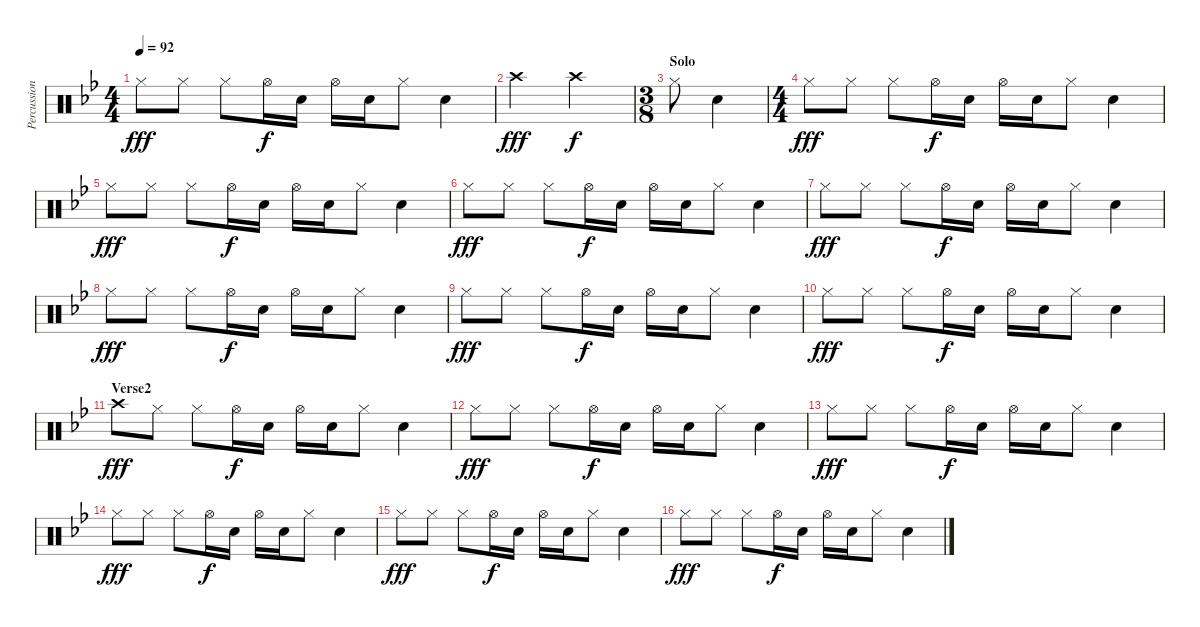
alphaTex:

\track ("Percussion" "Percussion") {instrument percussion}
\staff {score}
\articulation defaults
\ts (4 4)
\tempo 92
\clef neutral
\ks bb "Hi-Hat (closed)".8{dy fff} "Hi-Hat (closed)".8 "Hi-Hat (closed)".8 "Hi-Hat (open)".16{dy f} "Snare (hit) 2".16 "Hi-Hat (open)".16 "Snare (hit) 2".16 "Hi-Hat (closed)".8 "Snare (hit) 2".4
|
"Crash high (hit)".2{dy fff} "Crash high (hit)".2{dy f} |
\ts (3 8)
\section ("" "Solo")
"Hi-Hat (closed)".8 "Snare (hit) 2".4 |
\ts (4 4)
"Hi-Hat (closed)".8{dy fff} "Hi-Hat (closed)".8 "Hi-Hat (closed)".8 "Hi-Hat (open)".16{dy f} "Snare (hit) 2".16 "Hi-Hat (open)".16 "Snare (hit) 2".16 "Hi-Hat (closed)".8 "Snare (hit) 2".4 |
"Hi-Hat (closed)".8{dy fff} "Hi-Hat (closed)".8 "Hi-Hat (closed)".8 "Hi-Hat (open)".16{dy f} "Snare (hit) 2".16 "Hi-Hat (open)".16 "Snare (hit) 2".16 "Hi-Hat (closed)".8 "Snare (hit) 2".4 |
"Hi-Hat (closed)".8{dy fff} "Hi-Hat (closed)".8 "Hi-Hat (closed)".8 "Hi-Hat (open)".16{dy f} "Snare (hit) 2".16 "Hi-Hat (open)".16 "Snare (hit) 2".16 "Hi-Hat (closed)".8 "Snare (hit) 2".4 |
"Hi-Hat (closed)".8{dy fff} "Hi-Hat (closed)".8 "Hi-Hat (closed)".8 "Hi-Hat (open)".16{dy f} "Snare (hit) 2".16 "Hi-Hat (open)".16 "Snare (hit) 2".16 "Hi-Hat (closed)".8 "Snare (hit) 2".4 |
"Hi-Hat (closed)".8{dy fff} "Hi-Hat (closed)".8 "Hi-Hat (closed)".8 "Hi-Hat (open)".16{dy f} "Snare (hit) 2".16 "Hi-Hat (open)".16 "Snare (hit) 2".16 "Hi-Hat (closed)".8 "Snare (hit) 2".4 |
"Hi-Hat (closed)".8{dy fff} "Hi-Hat (closed)".8 "Hi-Hat (closed)".8 "Hi-Hat (open)".16{dy f} "Snare (hit) 2".16 "Hi-Hat (open)".16 "Snare (hit) 2".16 "Hi-Hat (closed)".8 "Snare (hit) 2".4 |
"Hi-Hat (closed)".8{dy fff} "Hi-Hat (closed)".8 "Hi-Hat (closed)".8 "Hi-Hat (open)".16{dy f} "Snare (hit) 2".16 "Hi-Hat (open)".16 "Snare (hit) 2".16 "Hi-Hat (closed)".8 "Snare (hit) 2".4 |
\section ("" "Verse2")
"Crash high (hit)".8{dy fff} "Hi-Hat (closed)".8 "Hi-Hat (closed)".8 "Hi-Hat (open)".16{dy f} "Snare (hit) 2".16 "Hi-Hat (open)".16 "Snare (hit) 2".16 "Hi-Hat (closed)".8 "Snare (hit) 2".4 |
"Hi-Hat (closed)".8{dy fff} "Hi-Hat (closed)".8 "Hi-Hat (closed)".8 "Hi-Hat (open)".16{dy f} "Snare (hit) 2".16 "Hi-Hat (open)".16 "Snare (hit) 2".16 "Hi-Hat (closed)".8 "Snare (hit) 2".4 |
"Hi-Hat (closed)".8{dy fff} "Hi-Hat (closed)".8 "Hi-Hat (closed)".8 "Hi-Hat (open)".16{dy f} "Snare (hit) 2".16 "Hi-Hat (open)".16 "Snare (hit) 2".16 "Hi-Hat (closed)".8 "Snare (hit) 2".4 |
"Hi-Hat (closed)".8{dy fff} "Hi-Hat (closed)".8 "Hi-Hat (closed)".8 "Hi-Hat (open)".16{dy f} "Snare (hit) 2".16 "Hi-Hat (open)".16 "Snare (hit) 2".16 "Hi-Hat (closed)".8 "Snare (hit) 2".4 |
"Hi-Hat (closed)".8{dy fff} "Hi-Hat (closed)".8 "Hi-Hat (closed)".8 "Hi-Hat (open)".16{dy f} "Snare (hit) 2".16 "Hi-Hat (open)".16 "Snare (hit) 2".16 "Hi-Hat (closed)".8 "Snare (hit) 2".4 |
"Hi-Hat (closed)".8{dy fff} "Hi-Hat (closed)".8 "Hi-Hat (closed)".8 "Hi-Hat (open)".16{dy f} "Snare (hit) 2".16 "Hi-Hat (open)".16 "Snare (hit) 2".16 "Hi-Hat (closed)".8 "Snare (hit) 2".4
